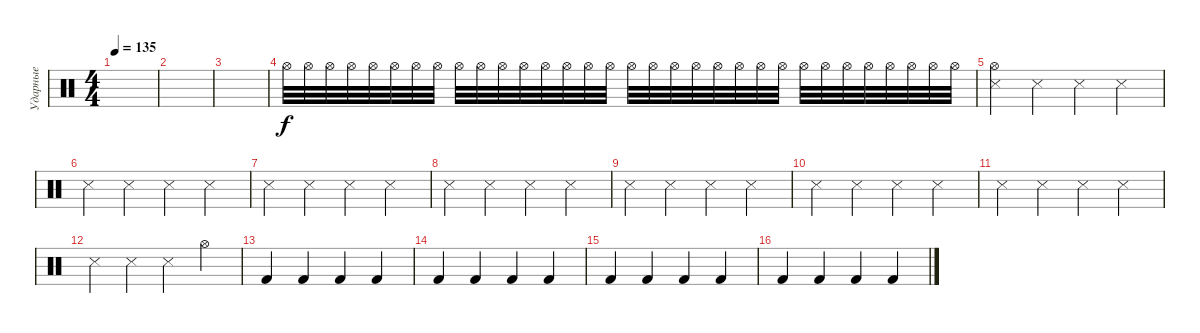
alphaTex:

\track ("Ударные" "Ударные") {instrument percussion}
\staff {score}
\articulation defaults
\ts (4 4)
\tempo 135
\clef neutral
\ks c
|
|
|
"Hi-Hat (open)".32{volume 6} "Hi-Hat (open)".32 "Hi-Hat (open)".32 "Hi-Hat (open)".32 "Hi-Hat (open)".32 "Hi-Hat (open)".32 "Hi-Hat (open)".32 "Hi-Hat (open)".32 "Hi-Hat (open)".32 "Hi-Hat (open)".32 "Hi-Hat (open)".32 "Hi-Hat (open)".32 "Hi-Hat (open)".32 "Hi-Hat (open)".32 "Hi-Hat (open)".32 "Hi-Hat (open)".32 "Hi-Hat (open)".32 "Hi-Hat (open)".32 "Hi-Hat (open)".32 "Hi-Hat (open)".32 "Hi-Hat (open)".32 "Hi-Hat (open)".32 "Hi-Hat (open)".32 "Hi-Hat (open)".32 "Hi-Hat (open)".32 "Hi-Hat (open)".32 "Hi-Hat (open)".32 "Hi-Hat (open)".32 "Hi-Hat (open)".32 "Hi-Hat (open)".32 "Hi-Hat (open)".32 "Hi-Hat (open)".32 |
("Snare (side stick) 3" "Hi-Hat (open)").4 "Snare (side stick) 3".4{volume 13} "Snare (side stick) 3".4 "Snare (side stick) 3".4 |
"Snare (side stick) 3".4 "Snare (side stick) 3".4 "Snare (side stick) 3".4 "Snare (side stick) 3".4 |
"Snare (side stick) 3".4 "Snare (side stick) 3".4 "Snare (side stick) 3".4 "Snare (side stick) 3".4 |
"Snare (side stick) 3".4 "Snare (side stick) 3".4 "Snare (side stick) 3".4 "Snare (side stick) 3".4 |
"Snare (side stick) 3".4 "Snare (side stick) 3".4 "Snare (side stick) 3".4 "Snare (side stick) 3".4 |
"Snare (side stick) 3".4 "Snare (side stick) 3".4 "Snare (side stick) 3".4 "Snare (side stick) 3".4 |
"Snare (side stick) 3".4 "Snare (side stick) 3".4 "Snare (side stick) 3".4 "Snare (side stick) 3".4 |
"Snare (side stick) 3".4 "Snare (side stick) 3".4 "Snare (side stick) 3".4 "Hi-Hat (open)".4 |
"Kick (hit) 2".4 "Kick (hit) 2".4 "Kick (hit) 2".4 "Kick (hit) 2".4 |
"Kick (hit) 2".4 "Kick (hit) 2".4 "Kick (hit) 2".4 "Kick (hit) 2".4 |
"Kick (hit) 2".4 "Kick (hit) 2".4 "Kick (hit) 2".4 "Kick (hit) 2".4 |
"Kick (hit) 2".4 "Kick (hit) 2".4 "Kick (hit) 2".4 "Kick (hit) 2".4
